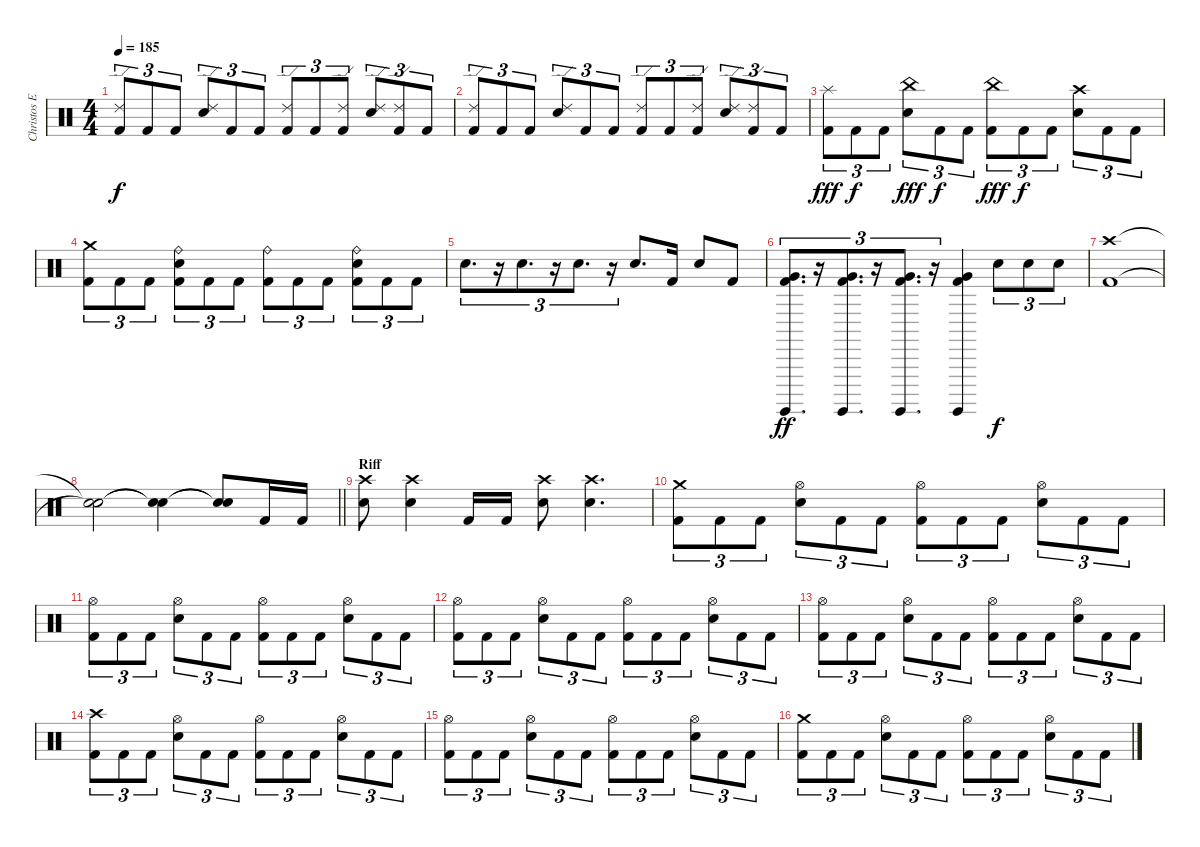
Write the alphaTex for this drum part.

\track ("Christos Ephitimiadis (drums)" "Christos E") {instrument percussion}
\staff {score}
\articulation defaults
\ts (4 4)
\tempo 185
\clef neutral
\ks c
("Ride (edge) 2" "Kick (hit) 2").8{tu (3 2) dy f} "Kick (hit) 2".8{tu (3 2)} "Kick (hit) 2".8{tu (3 2)} ("Ride (edge) 2" "Snare (hit) 2").8{tu (3 2)} "Kick (hit) 2".8{tu (3 2)} "Kick (hit) 2".8{tu (3 2)} ("Ride (edge) 2" "Kick (hit) 2").8{tu (3 2)} "Kick (hit) 2".8{tu (3 2)} ("Ride (edge) 2" "Kick (hit) 2").8{tu (3 2)} ("Ride (edge) 2" "Snare (hit) 2").8{tu (3 2)} ("Ride (edge) 2" "Kick (hit) 2").8{tu (3 2)} "Kick (hit) 2".8{tu (3 2)} |
("Ride (edge) 2" "Kick (hit) 2").8{tu (3 2)} "Kick (hit) 2".8{tu (3 2)} "Kick (hit) 2".8{tu (3 2)} ("Ride (edge) 2" "Snare (hit) 2").8{tu (3 2)} "Kick (hit) 2".8{tu (3 2)} "Kick (hit) 2".8{tu (3 2)} ("Ride (edge) 2" "Kick (hit) 2").8{tu (3 2)} "Kick (hit) 2".8{tu (3 2)} ("Ride (edge) 2" "Kick (hit) 2").8{tu (3 2)} ("Ride (edge) 2" "Snare (hit) 2").8{tu (3 2)} ("Ride (edge) 2" "Kick (hit) 2").8{tu (3 2)} "Kick (hit) 2".8{tu (3 2)} |
("Splash (hit)" "Kick (hit) 2").8{tu (3 2) dy fff} "Kick (hit) 2".8{tu (3 2) dy f} "Kick (hit) 2".8{tu (3 2)} ("China (hit)" "Snare (hit) 2").8{tu (3 2) dy fff} "Kick (hit) 2".8{tu (3 2) dy f} "Kick (hit) 2".8{tu (3 2)} ("China (hit)" "Kick (hit) 2").8{tu (3 2) dy fff} "Kick (hit) 2".8{tu (3 2) dy f} "Kick (hit) 2".8{tu (3 2)} ("Crash high (hit)" "Snare (hit) 2").8{tu (3 2)} "Kick (hit) 2".8{tu (3 2)} "Kick (hit) 2".8{tu (3 2)} |
("Crash medium (hit)" "Kick (hit) 2").8{tu (3 2)} "Kick (hit) 2".8{tu (3 2)} "Kick (hit) 2".8{tu (3 2)} ("Ride (bell)" "Snare (hit) 2" "Kick (hit) 2").8{tu (3 2)} "Kick (hit) 2".8{tu (3 2)} "Kick (hit) 2".8{tu (3 2)} ("Ride (bell)" "Kick (hit) 2").8{tu (3 2)} "Kick (hit) 2".8{tu (3 2)} "Kick (hit) 2".8{tu (3 2)} ("Ride (bell)" "Snare (hit) 2" "Kick (hit) 2").8{tu (3 2)} "Kick (hit) 2".8{tu (3 2)} "Kick (hit) 2".8{tu (3 2)} |
"Snare (hit) 2".8{d tu (3 2)} r.16{tu (3 2)} "Snare (hit) 2".8{d tu (3 2)} r.16{tu (3 2)} "Snare (hit) 2".8{d tu (3 2)} r.16{tu (3 2)} "Snare (hit) 2".8{d} "Kick (hit) 2".16 "Snare (hit) 2".8 "Kick (hit) 2".8 |
("Surdo (hit)" "Very Low Tom (hit)" "Kick (hit) 2").8{d tu (3 2) dy ff} r.16{tu (3 2)} ("Surdo (hit)" "Very Low Tom (hit)" "Kick (hit) 2").8{d tu (3 2)} r.16{tu (3 2)} ("Surdo (hit)" "Very Low Tom (hit)" "Kick (hit) 2").8{d tu (3 2)} r.16{tu (3 2)} ("Surdo (hit)" "Very Low Tom (hit)" "Kick (hit) 2").4 "Snare (hit) 2".8{tu (3 2) dy f} "Snare (hit) 2".8{tu (3 2)} "Snare (hit) 2".8{tu (3 2)} |
("Crash high (hit)" "Kick (hit) 2").1 |
\barLineRight lightlight
("Snare (hit)"{t} "Snare (hit)"{t}).2 ("Snare (hit)"{t} "Snare (hit)"{t}).4 ("Snare (hit)"{t} "Snare (hit)"{t}).8 "Kick (hit) 2".16 "Kick (hit) 2".16 |
\section ("" "Riff")
("Crash high (hit)" "Snare (hit) 2").8 ("Crash high (hit)" "Snare (hit) 2").4 "Kick (hit) 2".16 "Kick (hit) 2".16 ("Crash high (hit)" "Snare (hit) 2").8 ("Crash high (hit)" "Snare (hit) 2").4{d} |
("Crash medium (hit)" "Kick (hit) 2").8{tu (3 2)} "Kick (hit) 2".8{tu (3 2)} "Kick (hit) 2".8{tu (3 2)} ("Hi-Hat (open)" "Snare (hit) 2").8{tu (3 2)} "Kick (hit) 2".8{tu (3 2)} "Kick (hit) 2".8{tu (3 2)} ("Hi-Hat (open)" "Kick (hit) 2").8{tu (3 2)} "Kick (hit) 2".8{tu (3 2)} "Kick (hit) 2".8{tu (3 2)} ("Hi-Hat (open)" "Snare (hit) 2").8{tu (3 2)} "Kick (hit) 2".8{tu (3 2)} "Kick (hit) 2".8{tu (3 2)} |
("Hi-Hat (open)" "Kick (hit) 2").8{tu (3 2)} "Kick (hit) 2".8{tu (3 2)} "Kick (hit) 2".8{tu (3 2)} ("Hi-Hat (open)" "Snare (hit) 2").8{tu (3 2)} "Kick (hit) 2".8{tu (3 2)} "Kick (hit) 2".8{tu (3 2)} ("Hi-Hat (open)" "Kick (hit) 2").8{tu (3 2)} "Kick (hit) 2".8{tu (3 2)} "Kick (hit) 2".8{tu (3 2)} ("Hi-Hat (open)" "Snare (hit) 2").8{tu (3 2)} "Kick (hit) 2".8{tu (3 2)} "Kick (hit) 2".8{tu (3 2)} |
("Hi-Hat (open)" "Kick (hit) 2").8{tu (3 2)} "Kick (hit) 2".8{tu (3 2)} "Kick (hit) 2".8{tu (3 2)} ("Hi-Hat (open)" "Snare (hit) 2").8{tu (3 2)} "Kick (hit) 2".8{tu (3 2)} "Kick (hit) 2".8{tu (3 2)} ("Hi-Hat (open)" "Kick (hit) 2").8{tu (3 2)} "Kick (hit) 2".8{tu (3 2)} "Kick (hit) 2".8{tu (3 2)} ("Hi-Hat (open)" "Snare (hit) 2").8{tu (3 2)} "Kick (hit) 2".8{tu (3 2)} "Kick (hit) 2".8{tu (3 2)} |
("Hi-Hat (open)" "Kick (hit) 2").8{tu (3 2)} "Kick (hit) 2".8{tu (3 2)} "Kick (hit) 2".8{tu (3 2)} ("Hi-Hat (open)" "Snare (hit) 2").8{tu (3 2)} "Kick (hit) 2".8{tu (3 2)} "Kick (hit) 2".8{tu (3 2)} ("Hi-Hat (open)" "Kick (hit) 2").8{tu (3 2)} "Kick (hit) 2".8{tu (3 2)} "Kick (hit) 2".8{tu (3 2)} ("Hi-Hat (open)" "Snare (hit) 2").8{tu (3 2)} "Kick (hit) 2".8{tu (3 2)} "Kick (hit) 2".8{tu (3 2)} |
("Crash high (hit)" "Kick (hit) 2").8{tu (3 2)} "Kick (hit) 2".8{tu (3 2)} "Kick (hit) 2".8{tu (3 2)} ("Hi-Hat (open)" "Snare (hit) 2").8{tu (3 2)} "Kick (hit) 2".8{tu (3 2)} "Kick (hit) 2".8{tu (3 2)} ("Hi-Hat (open)" "Kick (hit) 2").8{tu (3 2)} "Kick (hit) 2".8{tu (3 2)} "Kick (hit) 2".8{tu (3 2)} ("Hi-Hat (open)" "Snare (hit) 2").8{tu (3 2)} "Kick (hit) 2".8{tu (3 2)} "Kick (hit) 2".8{tu (3 2)} |
("Hi-Hat (open)" "Kick (hit) 2").8{tu (3 2)} "Kick (hit) 2".8{tu (3 2)} "Kick (hit) 2".8{tu (3 2)} ("Hi-Hat (open)" "Snare (hit) 2").8{tu (3 2)} "Kick (hit) 2".8{tu (3 2)} "Kick (hit) 2".8{tu (3 2)} ("Hi-Hat (open)" "Kick (hit) 2").8{tu (3 2)} "Kick (hit) 2".8{tu (3 2)} "Kick (hit) 2".8{tu (3 2)} ("Hi-Hat (open)" "Snare (hit) 2").8{tu (3 2)} "Kick (hit) 2".8{tu (3 2)} "Kick (hit) 2".8{tu (3 2)} |
("Crash medium (hit)" "Kick (hit) 2").8{tu (3 2)} "Kick (hit) 2".8{tu (3 2)} "Kick (hit) 2".8{tu (3 2)} ("Hi-Hat (open)" "Snare (hit) 2").8{tu (3 2)} "Kick (hit) 2".8{tu (3 2)} "Kick (hit) 2".8{tu (3 2)} ("Hi-Hat (open)" "Kick (hit) 2").8{tu (3 2)} "Kick (hit) 2".8{tu (3 2)} "Kick (hit) 2".8{tu (3 2)} ("Hi-Hat (open)" "Snare (hit) 2").8{tu (3 2)} "Kick (hit) 2".8{tu (3 2)} "Kick (hit) 2".8{tu (3 2)}
